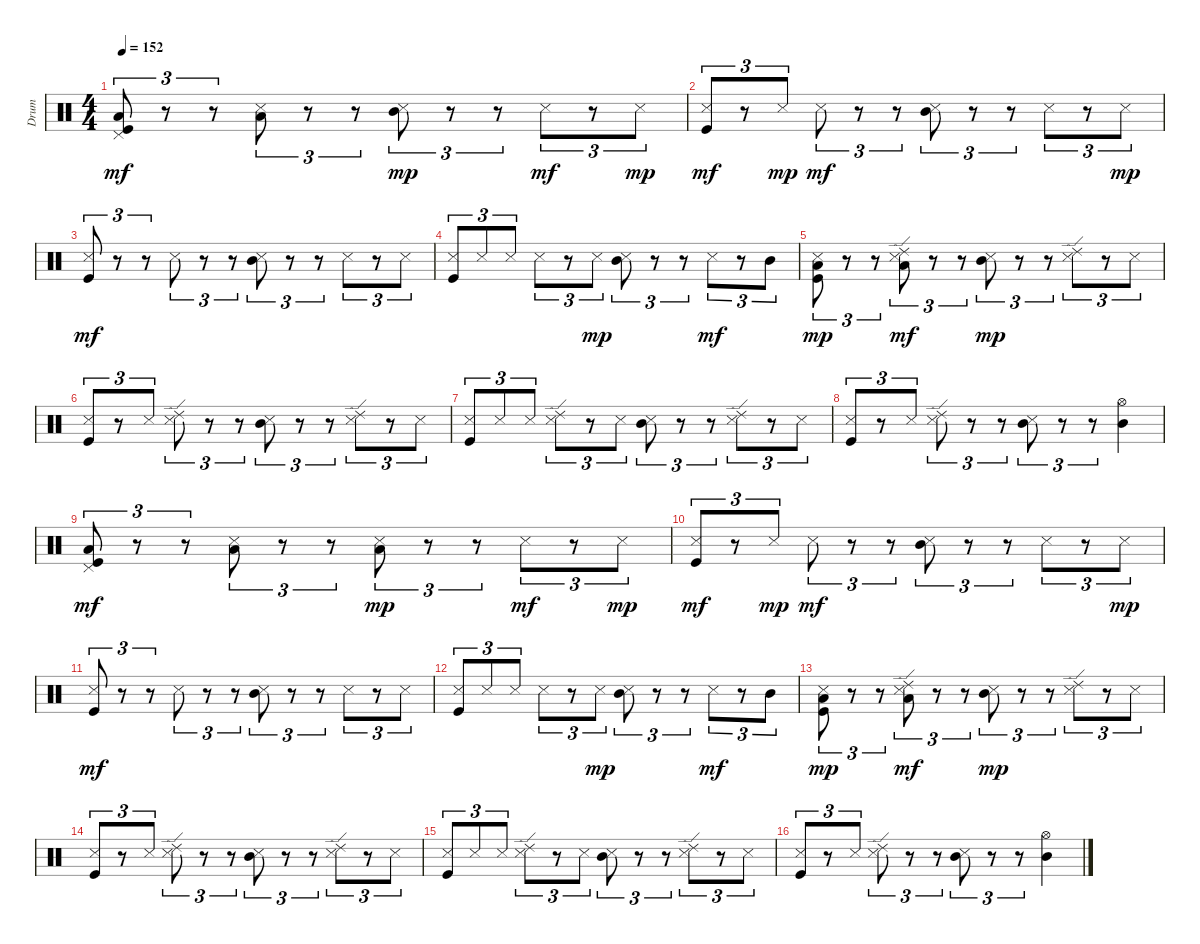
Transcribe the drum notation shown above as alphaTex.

\track ("Drum" "Drum") {instrument percussion}
\staff {score}
\articulation defaults
\ts (4 4)
\tempo 152
\clef neutral
\ks c
("Pedal Hi-Hat (hit)" "Low Floor Tom (hit)" "Kick (hit)").8{tu (3 2) dy mf} r.8{tu (3 2)} r.8{tu (3 2)} ("Snare (side stick) 3" "Low Floor Tom (hit)").8{tu (3 2)} r.8{tu (3 2)} r.8{tu (3 2)} ("Snare (side stick) 3" "Mid Tom (hit)").8{tu (3 2) dy mp} r.8{tu (3 2)} r.8{tu (3 2)} "Snare (side stick) 3".8{tu (3 2) dy mf} r.8{tu (3 2)} "Snare (side stick) 3".8{tu (3 2) dy mp} |
("Snare (side stick) 3" "Kick (hit)").8{tu (3 2) dy mf} r.8{tu (3 2)} "Snare (side stick) 3".8{tu (3 2) dy mp} "Snare (side stick) 3".8{tu (3 2) dy mf} r.8{tu (3 2)} r.8{tu (3 2)} ("Snare (side stick) 3" "Mid Tom (hit)").8{tu (3 2)} r.8{tu (3 2)} r.8{tu (3 2)} "Snare (side stick) 3".8{tu (3 2)} r.8{tu (3 2)} "Snare (side stick) 3".8{tu (3 2) dy mp} |
("Snare (side stick) 3" "Kick (hit)").8{tu (3 2) dy mf} r.8{tu (3 2)} r.8{tu (3 2)} "Snare (side stick) 3".8{tu (3 2)} r.8{tu (3 2)} r.8{tu (3 2)} ("Snare (side stick) 3" "Mid Tom (hit)").8{tu (3 2)} r.8{tu (3 2)} r.8{tu (3 2)} "Snare (side stick) 3".8{tu (3 2)} r.8{tu (3 2)} "Snare (side stick) 3".8{tu (3 2)} |
("Snare (side stick) 3" "Kick (hit)").8{tu (3 2)} "Snare (side stick) 3".8{tu (3 2)} "Snare (side stick) 3".8{tu (3 2)} "Snare (side stick) 3".8{tu (3 2)} r.8{tu (3 2)} "Snare (side stick) 3".8{tu (3 2) dy mp} ("Snare (side stick) 3" "Mid Tom (hit)").8{tu (3 2)} r.8{tu (3 2)} r.8{tu (3 2)} "Snare (side stick) 3".8{tu (3 2) dy mf} r.8{tu (3 2)} "Mid Tom (hit)".8{tu (3 2)} |
("Snare (side stick) 3" "Low Floor Tom (hit)" "Kick (hit)").8{tu (3 2) dy mp} r.8{tu (3 2)} r.8{tu (3 2)} ("Ride (edge) 2" "Snare (side stick) 3" "Low Floor Tom (hit)").8{tu (3 2) dy mf} r.8{tu (3 2)} r.8{tu (3 2)} ("Snare (side stick) 3" "Mid Tom (hit)").8{tu (3 2) dy mp} r.8{tu (3 2)} r.8{tu (3 2)} ("Ride (edge) 2" "Snare (side stick) 3").8{tu (3 2)} r.8{tu (3 2)} "Snare (side stick) 3".8{tu (3 2)} |
("Snare (side stick) 3" "Kick (hit)").8{tu (3 2)} r.8{tu (3 2)} "Snare (side stick) 3".8{tu (3 2)} ("Ride (edge) 2" "Snare (side stick) 3").8{tu (3 2)} r.8{tu (3 2)} r.8{tu (3 2)} ("Snare (side stick) 3" "Mid Tom (hit)").8{tu (3 2)} r.8{tu (3 2)} r.8{tu (3 2)} ("Ride (edge) 2" "Snare (side stick) 3").8{tu (3 2)} r.8{tu (3 2)} "Snare (side stick) 3".8{tu (3 2)} |
("Snare (side stick) 3" "Kick (hit)").8{tu (3 2)} "Snare (side stick) 3".8{tu (3 2)} "Snare (side stick) 3".8{tu (3 2)} ("Ride (edge) 2" "Snare (side stick) 3").8{tu (3 2)} r.8{tu (3 2)} "Snare (side stick) 3".8{tu (3 2)} ("Snare (side stick) 3" "Mid Tom (hit)").8{tu (3 2)} r.8{tu (3 2)} r.8{tu (3 2)} ("Ride (edge) 2" "Snare (side stick) 3").8{tu (3 2)} r.8{tu (3 2)} "Snare (side stick) 3".8{tu (3 2)} |
("Snare (side stick) 3" "Kick (hit)").8{tu (3 2)} r.8{tu (3 2)} "Snare (side stick) 3".8{tu (3 2)} ("Ride (edge) 2" "Snare (side stick) 3").8{tu (3 2)} r.8{tu (3 2)} r.8{tu (3 2)} ("Snare (side stick) 3" "Mid Tom (hit)").8{tu (3 2)} r.8{tu (3 2)} r.8{tu (3 2)} ("Hi-Hat (open)" "Mid Tom (hit)").4 |
("Pedal Hi-Hat (hit)" "Low Floor Tom (hit)" "Kick (hit)").8{tu (3 2) dy mf} r.8{tu (3 2)} r.8{tu (3 2)} ("Snare (side stick) 3" "Low Floor Tom (hit)").8{tu (3 2)} r.8{tu (3 2)} r.8{tu (3 2)} ("Snare (side stick) 3" "Low Floor Tom (hit)").8{tu (3 2) dy mp} r.8{tu (3 2)} r.8{tu (3 2)} "Snare (side stick) 3".8{tu (3 2) dy mf} r.8{tu (3 2)} "Snare (side stick) 3".8{tu (3 2) dy mp} |
("Snare (side stick) 3" "Kick (hit)").8{tu (3 2) dy mf} r.8{tu (3 2)} "Snare (side stick) 3".8{tu (3 2) dy mp} "Snare (side stick) 3".8{tu (3 2) dy mf} r.8{tu (3 2)} r.8{tu (3 2)} ("Snare (side stick) 3" "Mid Tom (hit)").8{tu (3 2)} r.8{tu (3 2)} r.8{tu (3 2)} "Snare (side stick) 3".8{tu (3 2)} r.8{tu (3 2)} "Snare (side stick) 3".8{tu (3 2) dy mp} |
("Snare (side stick) 3" "Kick (hit)").8{tu (3 2) dy mf} r.8{tu (3 2)} r.8{tu (3 2)} "Snare (side stick) 3".8{tu (3 2)} r.8{tu (3 2)} r.8{tu (3 2)} ("Snare (side stick) 3" "Mid Tom (hit)").8{tu (3 2)} r.8{tu (3 2)} r.8{tu (3 2)} "Snare (side stick) 3".8{tu (3 2)} r.8{tu (3 2)} "Snare (side stick) 3".8{tu (3 2)} |
("Snare (side stick) 3" "Kick (hit)").8{tu (3 2)} "Snare (side stick) 3".8{tu (3 2)} "Snare (side stick) 3".8{tu (3 2)} "Snare (side stick) 3".8{tu (3 2)} r.8{tu (3 2)} "Snare (side stick) 3".8{tu (3 2) dy mp} ("Snare (side stick) 3" "Mid Tom (hit)").8{tu (3 2)} r.8{tu (3 2)} r.8{tu (3 2)} "Snare (side stick) 3".8{tu (3 2) dy mf} r.8{tu (3 2)} "Mid Tom (hit)".8{tu (3 2)} |
("Snare (side stick) 3" "Low Floor Tom (hit)" "Kick (hit)").8{tu (3 2) dy mp} r.8{tu (3 2)} r.8{tu (3 2)} ("Ride (edge) 2" "Snare (side stick) 3" "Low Floor Tom (hit)").8{tu (3 2) dy mf} r.8{tu (3 2)} r.8{tu (3 2)} ("Snare (side stick) 3" "Mid Tom (hit)").8{tu (3 2) dy mp} r.8{tu (3 2)} r.8{tu (3 2)} ("Ride (edge) 2" "Snare (side stick) 3").8{tu (3 2)} r.8{tu (3 2)} "Snare (side stick) 3".8{tu (3 2)} |
("Snare (side stick) 3" "Kick (hit)").8{tu (3 2)} r.8{tu (3 2)} "Snare (side stick) 3".8{tu (3 2)} ("Ride (edge) 2" "Snare (side stick) 3").8{tu (3 2)} r.8{tu (3 2)} r.8{tu (3 2)} ("Snare (side stick) 3" "Mid Tom (hit)").8{tu (3 2)} r.8{tu (3 2)} r.8{tu (3 2)} ("Ride (edge) 2" "Snare (side stick) 3").8{tu (3 2)} r.8{tu (3 2)} "Snare (side stick) 3".8{tu (3 2)} |
("Snare (side stick) 3" "Kick (hit)").8{tu (3 2)} "Snare (side stick) 3".8{tu (3 2)} "Snare (side stick) 3".8{tu (3 2)} ("Ride (edge) 2" "Snare (side stick) 3").8{tu (3 2)} r.8{tu (3 2)} "Snare (side stick) 3".8{tu (3 2)} ("Snare (side stick) 3" "Mid Tom (hit)").8{tu (3 2)} r.8{tu (3 2)} r.8{tu (3 2)} ("Ride (edge) 2" "Snare (side stick) 3").8{tu (3 2)} r.8{tu (3 2)} "Snare (side stick) 3".8{tu (3 2)} |
("Snare (side stick) 3" "Kick (hit)").8{tu (3 2)} r.8{tu (3 2)} "Snare (side stick) 3".8{tu (3 2)} ("Ride (edge) 2" "Snare (side stick) 3").8{tu (3 2)} r.8{tu (3 2)} r.8{tu (3 2)} ("Snare (side stick) 3" "Mid Tom (hit)").8{tu (3 2)} r.8{tu (3 2)} r.8{tu (3 2)} ("Hi-Hat (open)" "Mid Tom (hit)").4
